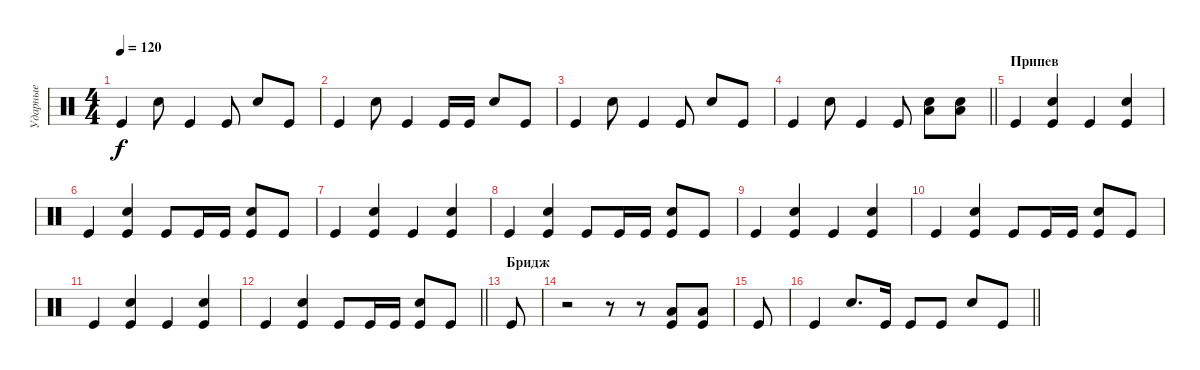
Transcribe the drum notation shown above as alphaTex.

\track ("Ударные" "Ударные") {instrument percussion}
\staff {score}
\articulation defaults
\ts (4 4)
\tempo 120
\clef neutral
\ks c "Kick (hit)".4{dy f} "Snare (hit) 2".8 "Kick (hit)".4 "Kick (hit)".8 "Snare (hit) 2".8 "Kick (hit)".8
|
"Kick (hit)".4 "Snare (hit) 2".8 "Kick (hit)".4 "Kick (hit)".16 "Kick (hit)".16 "Snare (hit) 2".8 "Kick (hit)".8 |
"Kick (hit)".4 "Snare (hit) 2".8 "Kick (hit)".4 "Kick (hit)".8 "Snare (hit) 2".8 "Kick (hit)".8 |
\barLineRight lightlight "Kick (hit)".4 "Snare (hit) 2".8 "Kick (hit)".4 "Kick (hit)".8
("Snare (hit) 2" "Low Floor Tom (hit)").8 ("Snare (hit) 2" "Low Floor Tom (hit)").8 |
\section ("" "Припев")
"Kick (hit)".4 ("Kick (hit)" "Snare (hit) 2").4 "Kick (hit)".4 ("Kick (hit)" "Snare (hit) 2").4 |
"Kick (hit)".4 ("Kick (hit)" "Snare (hit) 2").4 "Kick (hit)".8 "Kick (hit)".16 "Kick (hit)".16 ("Kick (hit)" "Snare (hit) 2").8 "Kick (hit)".8 |
"Kick (hit)".4 ("Kick (hit)" "Snare (hit) 2").4 "Kick (hit)".4 ("Kick (hit)" "Snare (hit) 2").4 |
"Kick (hit)".4 ("Kick (hit)" "Snare (hit) 2").4 "Kick (hit)".8 "Kick (hit)".16 "Kick (hit)".16 ("Kick (hit)" "Snare (hit) 2").8 "Kick (hit)".8 |
"Kick (hit)".4 ("Kick (hit)" "Snare (hit) 2").4 "Kick (hit)".4 ("Kick (hit)" "Snare (hit) 2").4 |
"Kick (hit)".4 ("Kick (hit)" "Snare (hit) 2").4 "Kick (hit)".8 "Kick (hit)".16 "Kick (hit)".16 ("Kick (hit)" "Snare (hit) 2").8 "Kick (hit)".8 |
"Kick (hit)".4 ("Kick (hit)" "Snare (hit) 2").4 "Kick (hit)".4 ("Kick (hit)" "Snare (hit) 2").4 |
\barLineRight lightlight "Kick (hit)".4
("Kick (hit)" "Snare (hit) 2").4 "Kick (hit)".8 "Kick (hit)".16 "Kick (hit)".16 ("Kick (hit)" "Snare (hit) 2").8 "Kick (hit)".8 |
\section ("" "Бридж")
"Kick (hit)".8 |
r.2 r.8 r.8 ("Kick (hit)" "Low Floor Tom (hit)").8 ("Kick (hit)" "Low Floor Tom (hit)").8 |
"Kick (hit)".8 |
\barLineRight lightlight "Kick (hit)".4 "Snare (hit) 2".8{d} "Kick (hit)".16 "Kick (hit)".8 "Kick (hit)".8 "Snare (hit) 2".8 "Kick (hit)".8
